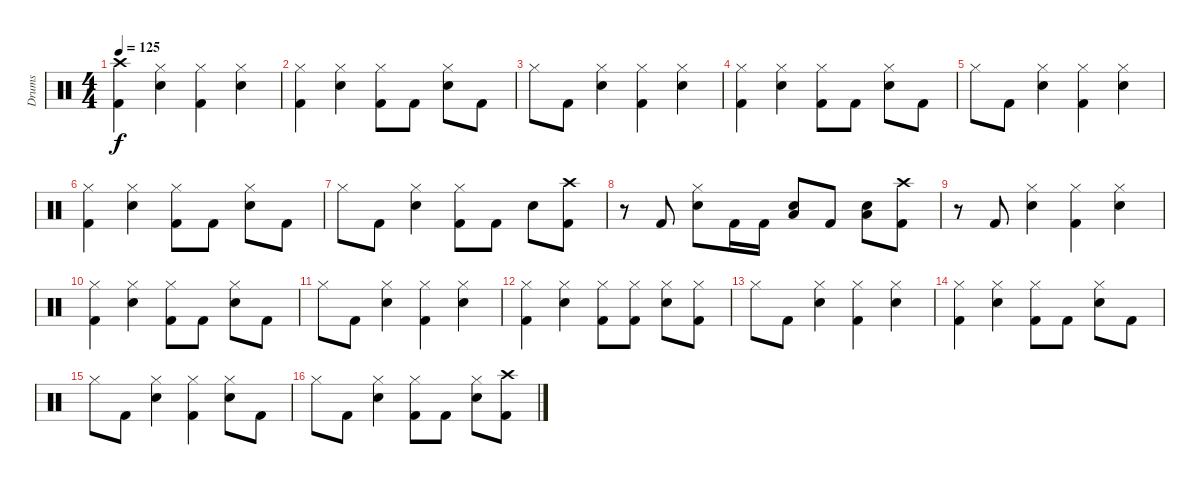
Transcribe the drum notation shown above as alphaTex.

\track ("Drums" "Drums") {instrument percussion}
\staff {score}
\articulation defaults
\ts (4 4)
\tempo 125
\clef neutral
\ks c
("Crash high (hit)" "Kick (hit) 2").4{dy f} ("Hi-Hat (closed)" "Electric Snare (hit)").4 ("Hi-Hat (closed)" "Kick (hit) 2").4 ("Hi-Hat (closed)" "Electric Snare (hit)").4 |
("Hi-Hat (closed)" "Kick (hit) 2").4 ("Hi-Hat (closed)" "Electric Snare (hit)").4 ("Hi-Hat (closed)" "Kick (hit) 2").8 "Kick (hit) 2".8 ("Hi-Hat (closed)" "Electric Snare (hit)").8 "Kick (hit) 2".8 |
"Hi-Hat (closed)".8 "Kick (hit) 2".8 ("Hi-Hat (closed)" "Electric Snare (hit)").4 ("Hi-Hat (closed)" "Kick (hit) 2").4 ("Hi-Hat (closed)" "Electric Snare (hit)").4 |
("Hi-Hat (closed)" "Kick (hit) 2").4 ("Hi-Hat (closed)" "Electric Snare (hit)").4 ("Hi-Hat (closed)" "Kick (hit) 2").8 "Kick (hit) 2".8 ("Hi-Hat (closed)" "Electric Snare (hit)").8 "Kick (hit) 2".8 |
"Hi-Hat (closed)".8 "Kick (hit) 2".8 ("Hi-Hat (closed)" "Electric Snare (hit)").4 ("Hi-Hat (closed)" "Kick (hit) 2").4 ("Hi-Hat (closed)" "Electric Snare (hit)").4 |
("Hi-Hat (closed)" "Kick (hit) 2").4 ("Hi-Hat (closed)" "Electric Snare (hit)").4 ("Hi-Hat (closed)" "Kick (hit) 2").8 "Kick (hit) 2".8 ("Hi-Hat (closed)" "Electric Snare (hit)").8 "Kick (hit) 2".8 |
"Hi-Hat (closed)".8 "Kick (hit) 2".8 ("Hi-Hat (closed)" "Electric Snare (hit)").4 ("Hi-Hat (closed)" "Kick (hit) 2").8 "Kick (hit) 2".8 "Electric Snare (hit)".8 ("Crash high (hit)" "Kick (hit) 2").8 |
r.8 "Kick (hit) 2".8 ("Hi-Hat (closed)" "Electric Snare (hit)").8 "Kick (hit) 2".16 "Kick (hit) 2".16 ("Electric Snare (hit)" "Low Tom (hit)").8 "Kick (hit) 2".8 ("Electric Snare (hit)" "Low Tom (hit)").8 ("Crash high (hit)" "Kick (hit) 2").8 |
r.8 "Kick (hit) 2".8 ("Hi-Hat (closed)" "Electric Snare (hit)").4 ("Hi-Hat (closed)" "Kick (hit) 2").4 ("Hi-Hat (closed)" "Electric Snare (hit)").4 |
("Hi-Hat (closed)" "Kick (hit) 2").4 ("Hi-Hat (closed)" "Electric Snare (hit)").4 ("Hi-Hat (closed)" "Kick (hit) 2").8 "Kick (hit) 2".8 ("Hi-Hat (closed)" "Electric Snare (hit)").8 "Kick (hit) 2".8 |
"Hi-Hat (closed)".8 "Kick (hit) 2".8 ("Hi-Hat (closed)" "Electric Snare (hit)").4 ("Hi-Hat (closed)" "Kick (hit) 2").4 ("Hi-Hat (closed)" "Electric Snare (hit)").4 |
("Hi-Hat (closed)" "Kick (hit) 2").4 ("Hi-Hat (closed)" "Electric Snare (hit)").4 ("Hi-Hat (closed)" "Kick (hit) 2").8 ("Hi-Hat (closed)" "Kick (hit) 2").8 ("Hi-Hat (closed)" "Electric Snare (hit)").8 ("Hi-Hat (closed)" "Kick (hit) 2").8 |
"Hi-Hat (closed)".8 "Kick (hit) 2".8 ("Hi-Hat (closed)" "Electric Snare (hit)").4 ("Hi-Hat (closed)" "Kick (hit) 2").4 ("Hi-Hat (closed)" "Electric Snare (hit)").4 |
("Hi-Hat (closed)" "Kick (hit) 2").4 ("Hi-Hat (closed)" "Electric Snare (hit)").4 ("Hi-Hat (closed)" "Kick (hit) 2").8 "Kick (hit) 2".8 ("Hi-Hat (closed)" "Electric Snare (hit)").8 "Kick (hit) 2".8 |
"Hi-Hat (closed)".8 "Kick (hit) 2".8 ("Hi-Hat (closed)" "Electric Snare (hit)").4 ("Hi-Hat (closed)" "Kick (hit) 2").4 ("Hi-Hat (closed)" "Electric Snare (hit)").8 "Kick (hit) 2".8 |
"Hi-Hat (closed)".8 "Kick (hit) 2".8 ("Hi-Hat (closed)" "Electric Snare (hit)").4 ("Hi-Hat (closed)" "Kick (hit) 2").8 "Kick (hit) 2".8 ("Hi-Hat (closed)" "Electric Snare (hit)").8 ("Crash high (hit)" "Kick (hit) 2").8
